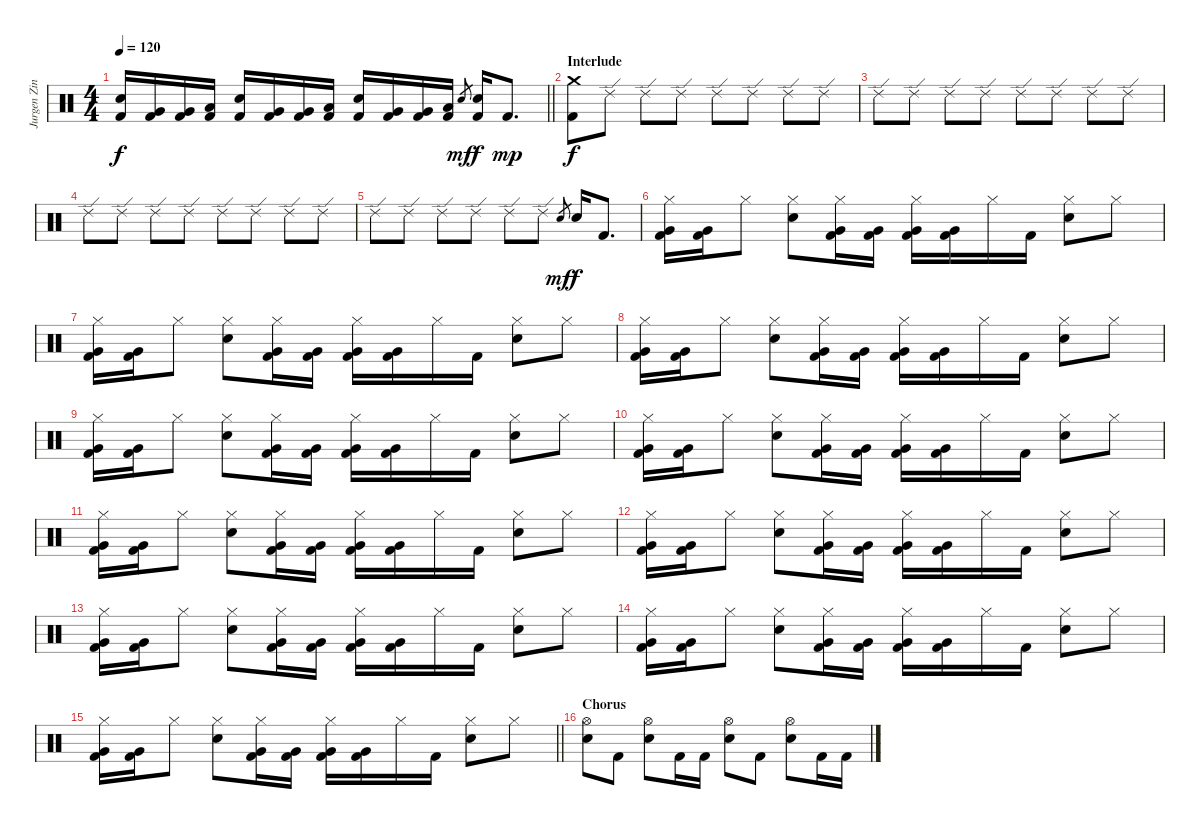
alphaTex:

\track ("Jurgen Zing" "Jurgen Zin") {instrument percussion}
\staff {score}
\articulation defaults
\ts (4 4)
\tempo 120
\clef neutral
\barLineRight lightlight
\ks c
("Electric Snare (hit)" "Kick (hit) 2").16{dy f} ("Very Low Tom (hit)" "Kick (hit) 2").16 ("Very Low Tom (hit)" "Kick (hit) 2").16 ("Low Floor Tom (hit)" "Kick (hit) 2").16 ("Electric Snare (hit)" "Kick (hit) 2").16 ("Very Low Tom (hit)" "Kick (hit) 2").16 ("Very Low Tom (hit)" "Kick (hit) 2").16 ("Low Floor Tom (hit)" "Kick (hit) 2").16 ("Electric Snare (hit)" "Kick (hit) 2").16 ("Very Low Tom (hit)" "Kick (hit) 2").16 ("Very Low Tom (hit)" "Kick (hit) 2").16 ("Low Floor Tom (hit)" "Kick (hit) 2").16 "Electric Snare (hit)".8{gr dy mf} ("Electric Snare (hit)" "Kick (hit) 2").16{dy f} "Kick (hit) 2".8{d dy mp} |
\section ("" "Interlude")
("Crash medium (hit)" "Kick (hit) 2").8{dy f} "Ride (edge) 2".8 "Ride (edge) 2".8 "Ride (edge) 2".8 "Ride (edge) 2".8 "Ride (edge) 2".8 "Ride (edge) 2".8 "Ride (edge) 2".8 |
"Ride (edge) 2".8 "Ride (edge) 2".8 "Ride (edge) 2".8 "Ride (edge) 2".8 "Ride (edge) 2".8 "Ride (edge) 2".8 "Ride (edge) 2".8 "Ride (edge) 2".8 |
"Ride (edge) 2".8 "Ride (edge) 2".8 "Ride (edge) 2".8 "Ride (edge) 2".8 "Ride (edge) 2".8 "Ride (edge) 2".8 "Ride (edge) 2".8 "Ride (edge) 2".8 |
"Ride (edge) 2".8 "Ride (edge) 2".8 "Ride (edge) 2".8 "Ride (edge) 2".8 "Ride (edge) 2".8 "Ride (edge) 2".8 "Electric Snare (hit)".8{gr dy mf} "Electric Snare (hit)".16{dy f} "Kick (hit) 2".8{d} |
("Hi-Hat (closed)" "Very Low Tom (hit)" "Kick (hit) 2").16 ("Very Low Tom (hit)" "Kick (hit) 2").16 "Hi-Hat (closed)".8 ("Hi-Hat (closed)" "Electric Snare (hit)").8 ("Hi-Hat (closed)" "Very Low Tom (hit)" "Kick (hit) 2").16 ("Very Low Tom (hit)" "Kick (hit) 2").16 ("Hi-Hat (closed)" "Very Low Tom (hit)" "Kick (hit) 2").16 ("Very Low Tom (hit)" "Kick (hit) 2").16 "Hi-Hat (closed)".16 "Kick (hit) 2".16 ("Hi-Hat (closed)" "Electric Snare (hit)").8 "Hi-Hat (closed)".8 |
("Hi-Hat (closed)" "Very Low Tom (hit)" "Kick (hit) 2").16 ("Very Low Tom (hit)" "Kick (hit) 2").16 "Hi-Hat (closed)".8 ("Hi-Hat (closed)" "Electric Snare (hit)").8 ("Hi-Hat (closed)" "Very Low Tom (hit)" "Kick (hit) 2").16 ("Very Low Tom (hit)" "Kick (hit) 2").16 ("Hi-Hat (closed)" "Very Low Tom (hit)" "Kick (hit) 2").16 ("Very Low Tom (hit)" "Kick (hit) 2").16 "Hi-Hat (closed)".16 "Kick (hit) 2".16 ("Hi-Hat (closed)" "Electric Snare (hit)").8 "Hi-Hat (closed)".8 |
("Hi-Hat (closed)" "Very Low Tom (hit)" "Kick (hit) 2").16 ("Very Low Tom (hit)" "Kick (hit) 2").16 "Hi-Hat (closed)".8 ("Hi-Hat (closed)" "Electric Snare (hit)").8 ("Hi-Hat (closed)" "Very Low Tom (hit)" "Kick (hit) 2").16 ("Very Low Tom (hit)" "Kick (hit) 2").16 ("Hi-Hat (closed)" "Very Low Tom (hit)" "Kick (hit) 2").16 ("Very Low Tom (hit)" "Kick (hit) 2").16 "Hi-Hat (closed)".16 "Kick (hit) 2".16 ("Hi-Hat (closed)" "Electric Snare (hit)").8 "Hi-Hat (closed)".8 |
("Hi-Hat (closed)" "Very Low Tom (hit)" "Kick (hit) 2").16 ("Very Low Tom (hit)" "Kick (hit) 2").16 "Hi-Hat (closed)".8 ("Hi-Hat (closed)" "Electric Snare (hit)").8 ("Hi-Hat (closed)" "Very Low Tom (hit)" "Kick (hit) 2").16 ("Very Low Tom (hit)" "Kick (hit) 2").16 ("Hi-Hat (closed)" "Very Low Tom (hit)" "Kick (hit) 2").16 ("Very Low Tom (hit)" "Kick (hit) 2").16 "Hi-Hat (closed)".16 "Kick (hit) 2".16 ("Hi-Hat (closed)" "Electric Snare (hit)").8 "Hi-Hat (closed)".8 |
("Hi-Hat (closed)" "Very Low Tom (hit)" "Kick (hit) 2").16 ("Very Low Tom (hit)" "Kick (hit) 2").16 "Hi-Hat (closed)".8 ("Hi-Hat (closed)" "Electric Snare (hit)").8 ("Hi-Hat (closed)" "Very Low Tom (hit)" "Kick (hit) 2").16 ("Very Low Tom (hit)" "Kick (hit) 2").16 ("Hi-Hat (closed)" "Very Low Tom (hit)" "Kick (hit) 2").16 ("Very Low Tom (hit)" "Kick (hit) 2").16 "Hi-Hat (closed)".16 "Kick (hit) 2".16 ("Hi-Hat (closed)" "Electric Snare (hit)").8 "Hi-Hat (closed)".8 |
("Hi-Hat (closed)" "Very Low Tom (hit)" "Kick (hit) 2").16 ("Very Low Tom (hit)" "Kick (hit) 2").16 "Hi-Hat (closed)".8 ("Hi-Hat (closed)" "Electric Snare (hit)").8 ("Hi-Hat (closed)" "Very Low Tom (hit)" "Kick (hit) 2").16 ("Very Low Tom (hit)" "Kick (hit) 2").16 ("Hi-Hat (closed)" "Very Low Tom (hit)" "Kick (hit) 2").16 ("Very Low Tom (hit)" "Kick (hit) 2").16 "Hi-Hat (closed)".16 "Kick (hit) 2".16 ("Hi-Hat (closed)" "Electric Snare (hit)").8 "Hi-Hat (closed)".8 |
("Hi-Hat (closed)" "Very Low Tom (hit)" "Kick (hit) 2").16 ("Very Low Tom (hit)" "Kick (hit) 2").16 "Hi-Hat (closed)".8 ("Hi-Hat (closed)" "Electric Snare (hit)").8 ("Hi-Hat (closed)" "Very Low Tom (hit)" "Kick (hit) 2").16 ("Very Low Tom (hit)" "Kick (hit) 2").16 ("Hi-Hat (closed)" "Very Low Tom (hit)" "Kick (hit) 2").16 ("Very Low Tom (hit)" "Kick (hit) 2").16 "Hi-Hat (closed)".16 "Kick (hit) 2".16 ("Hi-Hat (closed)" "Electric Snare (hit)").8 "Hi-Hat (closed)".8 |
("Hi-Hat (closed)" "Very Low Tom (hit)" "Kick (hit) 2").16 ("Very Low Tom (hit)" "Kick (hit) 2").16 "Hi-Hat (closed)".8 ("Hi-Hat (closed)" "Electric Snare (hit)").8 ("Hi-Hat (closed)" "Very Low Tom (hit)" "Kick (hit) 2").16 ("Very Low Tom (hit)" "Kick (hit) 2").16 ("Hi-Hat (closed)" "Very Low Tom (hit)" "Kick (hit) 2").16 ("Very Low Tom (hit)" "Kick (hit) 2").16 "Hi-Hat (closed)".16 "Kick (hit) 2".16 ("Hi-Hat (closed)" "Electric Snare (hit)").8 "Hi-Hat (closed)".8 |
("Hi-Hat (closed)" "Very Low Tom (hit)" "Kick (hit) 2").16 ("Very Low Tom (hit)" "Kick (hit) 2").16 "Hi-Hat (closed)".8 ("Hi-Hat (closed)" "Electric Snare (hit)").8 ("Hi-Hat (closed)" "Very Low Tom (hit)" "Kick (hit) 2").16 ("Very Low Tom (hit)" "Kick (hit) 2").16 ("Hi-Hat (closed)" "Very Low Tom (hit)" "Kick (hit) 2").16 ("Very Low Tom (hit)" "Kick (hit) 2").16 "Hi-Hat (closed)".16 "Kick (hit) 2".16 ("Hi-Hat (closed)" "Electric Snare (hit)").8 "Hi-Hat (closed)".8 |
\barLineRight lightlight
("Hi-Hat (closed)" "Very Low Tom (hit)" "Kick (hit) 2").16 ("Very Low Tom (hit)" "Kick (hit) 2").16 "Hi-Hat (closed)".8 ("Hi-Hat (closed)" "Electric Snare (hit)").8 ("Hi-Hat (closed)" "Very Low Tom (hit)" "Kick (hit) 2").16 ("Very Low Tom (hit)" "Kick (hit) 2").16 ("Hi-Hat (closed)" "Very Low Tom (hit)" "Kick (hit) 2").16 ("Very Low Tom (hit)" "Kick (hit) 2").16 "Hi-Hat (closed)".16 "Kick (hit) 2".16 ("Hi-Hat (closed)" "Electric Snare (hit)").8 "Hi-Hat (closed)".8 |
\section ("" "Chorus")
("Hi-Hat (open)" "Electric Snare (hit)").8 "Kick (hit) 2".8 ("Hi-Hat (open)" "Electric Snare (hit)").8 "Kick (hit) 2".16 "Kick (hit) 2".16 ("Hi-Hat (open)" "Electric Snare (hit)").8 "Kick (hit) 2".8 ("Hi-Hat (open)" "Electric Snare (hit)").8 "Kick (hit) 2".16 "Kick (hit) 2".16
